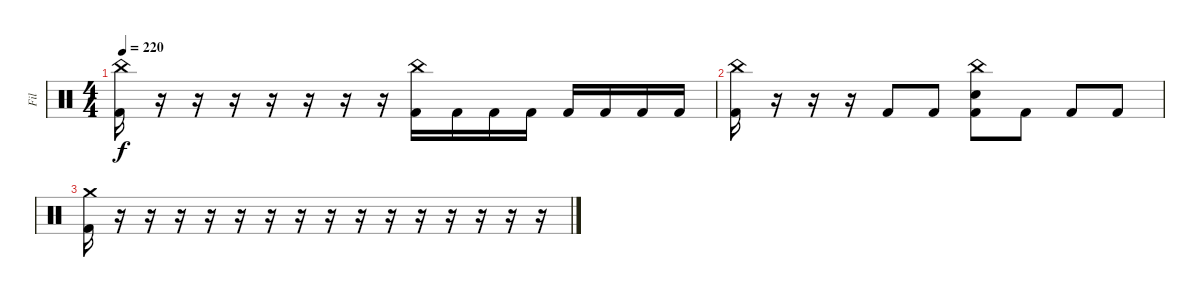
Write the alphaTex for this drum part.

\track ("Fil" "Fil") {instrument percussion}
\staff {score}
\articulation defaults
\ts (4 4)
\tempo 220
\clef neutral
\ks c
("China (hit)" "Kick (hit) 2").16{dy f} r.16 r.16 r.16 r.16 r.16 r.16 r.16 ("China (hit)" "Kick (hit) 2").16 "Kick (hit) 2".16 "Kick (hit) 2".16 "Kick (hit) 2".16 "Kick (hit) 2".16 "Kick (hit) 2".16 "Kick (hit) 2".16 "Kick (hit) 2".16 |
("China (hit)" "Kick (hit) 2").16 r.16 r.16 r.16 "Kick (hit) 2".8 "Kick (hit) 2".8 ("China (hit)" "Electric Snare (hit)" "Kick (hit) 2").8 "Kick (hit) 2".8 "Kick (hit) 2".8 "Kick (hit) 2".8 |
("Crash medium (hit)" "Kick (hit) 2").16 r.16 r.16 r.16 r.16 r.16 r.16 r.16 r.16 r.16 r.16 r.16 r.16 r.16 r.16 r.16
